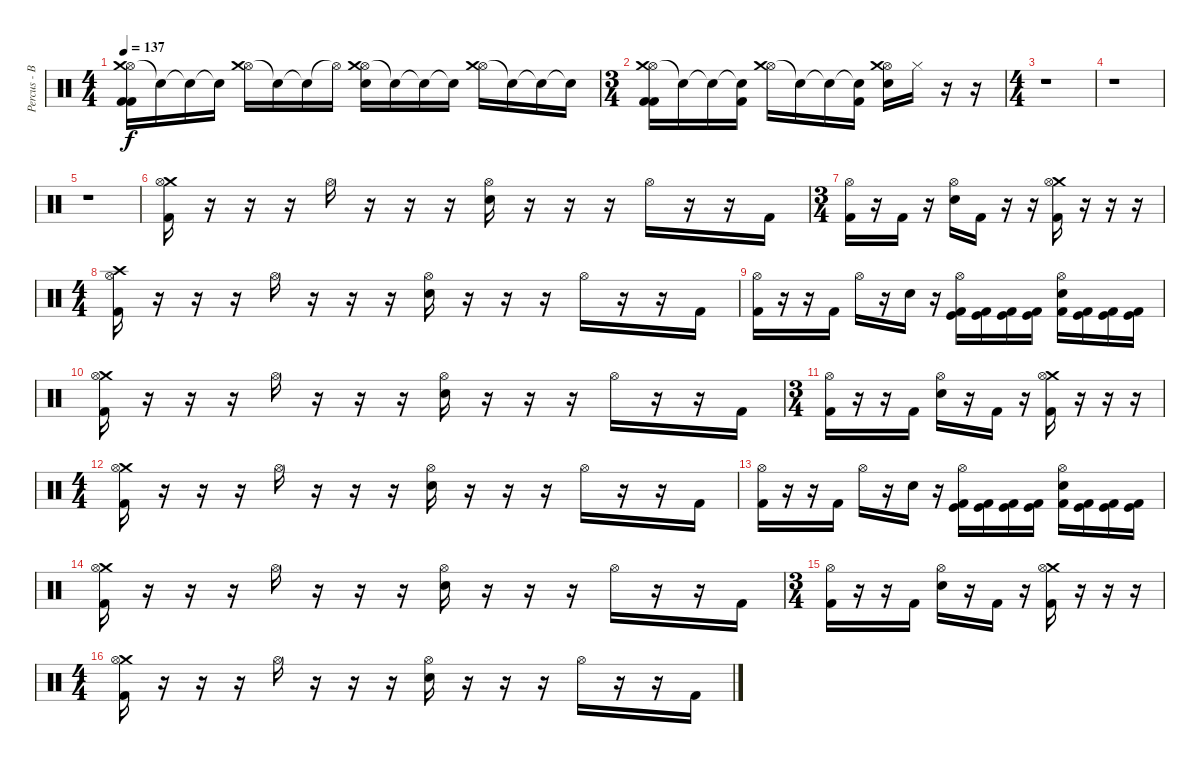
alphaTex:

\track ("Percus - Brice" "Percus - B") {instrument percussion}
\staff {score}
\articulation defaults
\ts (4 4)
\tempo 137
\clef neutral
\ks c
("Hi-Hat (open)" "Crash medium (hit)" "Kick (hit) 2" "Kick (hit) 2").16{dy f} "Snare (hit)"{t}.16 "Snare (hit)"{t}.16 "Snare (hit)"{t}.16 ("Hi-Hat (open)" "Crash medium (hit)").16 "Snare (hit)"{t}.16 "Snare (hit)"{t}.16 "Hi-Hat (open)"{t}.16 ("Hi-Hat (open)" "Crash medium (hit)" "Electric Snare (hit)").16 "Snare (hit)"{t}.16 "Snare (hit)"{t}.16 "Snare (hit)"{t}.16 ("Hi-Hat (open)" "Crash medium (hit)").16 "Snare (hit)"{t}.16 "Snare (hit)"{t}.16 "Snare (hit)"{t}.16 |
\ts (3 4)
("Hi-Hat (open)" "Crash medium (hit)" "Kick (hit) 2" "Kick (hit) 2").16 "Snare (hit)"{t}.16 "Snare (hit)"{t}.16 ("Snare (hit)"{t} "Kick (hit) 2").16 ("Hi-Hat (open)" "Crash medium (hit)").16 "Snare (hit)"{t}.16 "Snare (hit)"{t}.16 ("Snare (hit)"{t} "Kick (hit) 2").16 ("Hi-Hat (open)" "Crash medium (hit)" "Electric Snare (hit)").16 "Hi-Hat (closed)".16 r.16 r.16 |
\ts (4 4)
r.1 |
r.1 |
r.1 |
("Crash medium (hit)" "Hi-Hat (open)" "Kick (hit) 2").16 r.16 r.16 r.16 "Hi-Hat (open)".16 r.16 r.16 r.16 ("Hi-Hat (open)" "Electric Snare (hit)").16 r.16 r.16 r.16 "Hi-Hat (open)".16 r.16 r.16 "Kick (hit) 2".16 |
\ts (3 4)
("Hi-Hat (open)" "Kick (hit) 2").16 r.16 "Kick (hit) 2".16 r.16 ("Hi-Hat (open)" "Electric Snare (hit)").16 "Kick (hit) 2".16 r.16 r.16 ("Crash medium (hit)" "Hi-Hat (open)" "Kick (hit) 2").16 r.16 r.16 r.16 |
\ts (4 4)
("Crash high (hit)" "Hi-Hat (open)" "Kick (hit) 2").16 r.16 r.16 r.16 "Hi-Hat (open)".16 r.16 r.16 r.16 ("Hi-Hat (open)" "Electric Snare (hit)").16 r.16 r.16 r.16 "Hi-Hat (open)".16 r.16 r.16 "Kick (hit) 2".16 |
("Hi-Hat (open)" "Kick (hit) 2").16 r.16 r.16 "Kick (hit) 2".16 "Hi-Hat (open)".16 r.16 "Electric Snare (hit)".16 r.16 ("Hi-Hat (open)" "Kick (hit)" "Kick (hit) 2").16 ("Kick (hit)" "Kick (hit) 2").16 ("Kick (hit)" "Kick (hit) 2").16 ("Kick (hit)" "Kick (hit) 2").16 ("Hi-Hat (open)" "Electric Snare (hit)" "Kick (hit) 2").16 ("Kick (hit)" "Kick (hit) 2").16 ("Kick (hit)" "Kick (hit) 2").16 ("Kick (hit)" "Kick (hit) 2").16 |
("Crash medium (hit)" "Hi-Hat (open)" "Kick (hit) 2").16 r.16 r.16 r.16 "Hi-Hat (open)".16 r.16 r.16 r.16 ("Hi-Hat (open)" "Electric Snare (hit)").16 r.16 r.16 r.16 "Hi-Hat (open)".16 r.16 r.16 "Kick (hit) 2".16 |
\ts (3 4)
("Hi-Hat (open)" "Kick (hit) 2").16 r.16 r.16 "Kick (hit) 2".16 ("Hi-Hat (open)" "Electric Snare (hit)").16 r.16 "Kick (hit) 2".16 r.16 ("Crash medium (hit)" "Hi-Hat (open)" "Kick (hit) 2").16 r.16 r.16 r.16 |
\ts (4 4)
("Crash medium (hit)" "Hi-Hat (open)" "Kick (hit) 2").16 r.16 r.16 r.16 "Hi-Hat (open)".16 r.16 r.16 r.16 ("Hi-Hat (open)" "Electric Snare (hit)").16 r.16 r.16 r.16 "Hi-Hat (open)".16 r.16 r.16 "Kick (hit) 2".16 |
("Hi-Hat (open)" "Kick (hit) 2").16 r.16 r.16 "Kick (hit) 2".16 "Hi-Hat (open)".16 r.16 "Electric Snare (hit)".16 r.16 ("Hi-Hat (open)" "Kick (hit)" "Kick (hit) 2").16 ("Kick (hit)" "Kick (hit) 2").16 ("Kick (hit)" "Kick (hit) 2").16 ("Kick (hit)" "Kick (hit) 2").16 ("Hi-Hat (open)" "Electric Snare (hit)" "Kick (hit) 2").16 ("Kick (hit)" "Kick (hit) 2").16 ("Kick (hit)" "Kick (hit) 2").16 ("Kick (hit)" "Kick (hit) 2").16 |
("Crash medium (hit)" "Hi-Hat (open)" "Kick (hit) 2").16 r.16 r.16 r.16 "Hi-Hat (open)".16 r.16 r.16 r.16 ("Hi-Hat (open)" "Electric Snare (hit)").16 r.16 r.16 r.16 "Hi-Hat (open)".16 r.16 r.16 "Kick (hit) 2".16 |
\ts (3 4)
("Hi-Hat (open)" "Kick (hit) 2").16 r.16 r.16 "Kick (hit) 2".16 ("Hi-Hat (open)" "Electric Snare (hit)").16 r.16 "Kick (hit) 2".16 r.16 ("Crash medium (hit)" "Hi-Hat (open)" "Kick (hit) 2").16 r.16 r.16 r.16 |
\ts (4 4)
("Crash medium (hit)" "Hi-Hat (open)" "Kick (hit) 2").16 r.16 r.16 r.16 "Hi-Hat (open)".16 r.16 r.16 r.16 ("Hi-Hat (open)" "Electric Snare (hit)").16 r.16 r.16 r.16 "Hi-Hat (open)".16 r.16 r.16 "Kick (hit) 2".16
